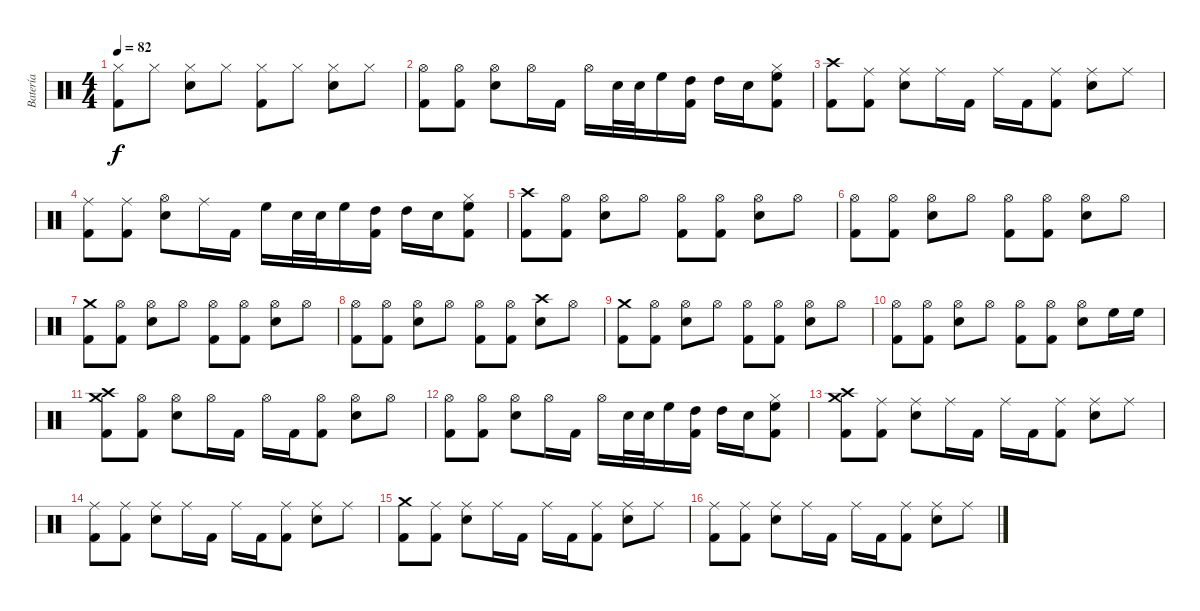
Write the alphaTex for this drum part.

\track ("Batería" "Batería") {instrument percussion}
\staff {score}
\articulation defaults
\ts (4 4)
\tempo 82
\clef neutral
\ks c
("Hi-Hat (closed)" "Kick (hit) 2").8{dy f} "Hi-Hat (closed)".8 ("Hi-Hat (closed)" "Electric Snare (hit)").8 "Hi-Hat (closed)".8 ("Hi-Hat (closed)" "Kick (hit) 2").8 "Hi-Hat (closed)".8 ("Hi-Hat (closed)" "Electric Snare (hit)").8 "Hi-Hat (closed)".8 |
("Hi-Hat (open)" "Kick (hit) 2").8 ("Hi-Hat (open)" "Kick (hit) 2").8 ("Hi-Hat (open)" "Electric Snare (hit)").8 "Hi-Hat (open)".16 "Kick (hit) 2".16 "Hi-Hat (open)".16 "Electric Snare (hit)".32 "Electric Snare (hit)".32 "High Floor Tom (hit)".16 ("Kick (hit) 2" "High Tom (hit)").16 "High Tom (hit)".16 "Electric Snare (hit)".16 ("Kick (hit) 2" "High Floor Tom (hit)" "Hi-Hat (closed)").8 |
("Crash high (hit)" "Kick (hit) 2").8 ("Ride (middle)" "Kick (hit) 2").8 ("Ride (middle)" "Electric Snare (hit)").8 "Ride (middle)".16 "Kick (hit) 2".16 "Ride (middle)".16 "Kick (hit) 2".16 ("Ride (middle)" "Kick (hit) 2").8 ("Ride (middle)" "Electric Snare (hit)").8 "Ride (middle)".8 |
("Ride (middle)" "Kick (hit) 2").8 ("Ride (middle)" "Kick (hit) 2").8 ("Hi-Hat (open)" "Electric Snare (hit)").8 "Ride (middle)".16 "Kick (hit) 2".16 "High Floor Tom (hit)".16 "Electric Snare (hit)".32 "Electric Snare (hit)".32 "High Floor Tom (hit)".16 ("Kick (hit) 2" "High Tom (hit)").16 "High Tom (hit)".16 "Electric Snare (hit)".16 ("Kick (hit) 2" "High Floor Tom (hit)" "Hi-Hat (closed)").8 |
("Crash high (hit)" "Kick (hit) 2").8 ("Hi-Hat (open)" "Kick (hit) 2").8 ("Hi-Hat (open)" "Electric Snare (hit)").8 "Hi-Hat (open)".8 ("Hi-Hat (open)" "Kick (hit) 2").8 ("Hi-Hat (open)" "Kick (hit) 2").8 ("Hi-Hat (open)" "Electric Snare (hit)").8 "Hi-Hat (open)".8 |
("Hi-Hat (open)" "Kick (hit) 2").8 ("Hi-Hat (open)" "Kick (hit) 2").8 ("Hi-Hat (open)" "Electric Snare (hit)").8 "Hi-Hat (open)".8 ("Hi-Hat (open)" "Kick (hit) 2").8 ("Hi-Hat (open)" "Kick (hit) 2").8 ("Hi-Hat (open)" "Electric Snare (hit)").8 "Hi-Hat (open)".8 |
("Crash medium (hit)" "Kick (hit) 2").8 ("Hi-Hat (open)" "Kick (hit) 2").8 ("Hi-Hat (open)" "Electric Snare (hit)").8 "Hi-Hat (open)".8 ("Hi-Hat (open)" "Kick (hit) 2").8 ("Hi-Hat (open)" "Kick (hit) 2").8 ("Hi-Hat (open)" "Electric Snare (hit)").8 "Hi-Hat (open)".8 |
("Hi-Hat (open)" "Kick (hit) 2").8 ("Hi-Hat (open)" "Kick (hit) 2").8 ("Hi-Hat (open)" "Electric Snare (hit)").8 "Hi-Hat (open)".8 ("Hi-Hat (open)" "Kick (hit) 2").8 ("Hi-Hat (open)" "Kick (hit) 2").8 ("Crash high (hit)" "Electric Snare (hit)").8 "Hi-Hat (open)".8 |
("Crash medium (hit)" "Kick (hit) 2").8 ("Hi-Hat (open)" "Kick (hit) 2").8 ("Hi-Hat (open)" "Electric Snare (hit)").8 "Hi-Hat (open)".8 ("Hi-Hat (open)" "Kick (hit) 2").8 ("Hi-Hat (open)" "Kick (hit) 2").8 ("Hi-Hat (open)" "Electric Snare (hit)").8 "Hi-Hat (open)".8 |
("Hi-Hat (open)" "Kick (hit) 2").8 ("Hi-Hat (open)" "Kick (hit) 2").8 ("Hi-Hat (open)" "Electric Snare (hit)").8 "Hi-Hat (open)".8 ("Hi-Hat (open)" "Kick (hit) 2").8 ("Hi-Hat (open)" "Kick (hit) 2").8 ("Hi-Hat (open)" "Electric Snare (hit)").8 "High Floor Tom (hit)".16 "High Floor Tom (hit)".16 |
("Crash medium (hit)" "Crash high (hit)" "Kick (hit) 2").8 ("Hi-Hat (open)" "Kick (hit) 2").8 ("Hi-Hat (open)" "Electric Snare (hit)").8 "Hi-Hat (open)".16 "Kick (hit) 2".16 "Hi-Hat (open)".16 "Kick (hit) 2".16 ("Hi-Hat (open)" "Kick (hit) 2").8 ("Hi-Hat (open)" "Electric Snare (hit)").8 "Hi-Hat (open)".8 |
("Hi-Hat (open)" "Kick (hit) 2").8 ("Hi-Hat (open)" "Kick (hit) 2").8 ("Hi-Hat (open)" "Electric Snare (hit)").8 "Hi-Hat (open)".16 "Kick (hit) 2".16 "Hi-Hat (open)".16 "Electric Snare (hit)".32 "Electric Snare (hit)".32 "High Floor Tom (hit)".16 ("Kick (hit) 2" "High Tom (hit)").16 "High Tom (hit)".16 "Electric Snare (hit)".16 ("Kick (hit) 2" "High Floor Tom (hit)" "Hi-Hat (closed)").8 |
("Crash medium (hit)" "Crash high (hit)" "Kick (hit) 2").8 ("Ride (middle)" "Kick (hit) 2").8 ("Ride (middle)" "Electric Snare (hit)").8 "Ride (middle)".16 "Kick (hit) 2".16 "Ride (middle)".16 "Kick (hit) 2".16 ("Ride (middle)" "Kick (hit) 2").8 ("Ride (middle)" "Electric Snare (hit)").8 "Ride (middle)".8 |
("Ride (middle)" "Kick (hit) 2").8 ("Ride (middle)" "Kick (hit) 2").8 ("Ride (middle)" "Electric Snare (hit)").8 "Ride (middle)".16 "Kick (hit) 2".16 "Ride (middle)".16 "Kick (hit) 2".16 ("Ride (middle)" "Kick (hit) 2").8 ("Ride (middle)" "Electric Snare (hit)").8 "Ride (middle)".8 |
("Crash medium (hit)" "Kick (hit) 2").8 ("Ride (middle)" "Kick (hit) 2").8 ("Ride (middle)" "Electric Snare (hit)").8 "Ride (middle)".16 "Kick (hit) 2".16 "Ride (middle)".16 "Kick (hit) 2".16 ("Ride (middle)" "Kick (hit) 2").8 ("Ride (middle)" "Electric Snare (hit)").8 "Ride (middle)".8 |
("Ride (middle)" "Kick (hit) 2").8 ("Ride (middle)" "Kick (hit) 2").8 ("Ride (middle)" "Electric Snare (hit)").8 "Ride (middle)".16 "Kick (hit) 2".16 "Ride (middle)".16 "Kick (hit) 2".16 ("Ride (middle)" "Kick (hit) 2").8 ("Ride (middle)" "Electric Snare (hit)").8 "Ride (middle)".8
